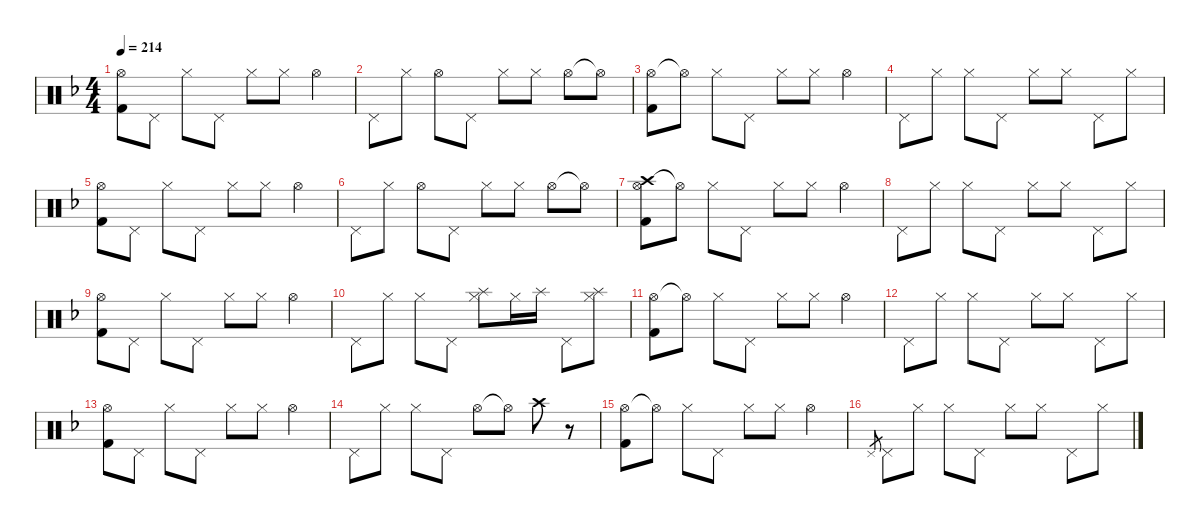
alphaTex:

\hideDynamics
\bracketExtendMode nobrackets
\singleTrackTrackNamePolicy hidden
\multiTrackTrackNamePolicy hidden
\firstSystemTrackNameMode fullname
\firstSystemTrackNameOrientation horizontal
\otherSystemsTrackNameOrientation horizontal
\track ("Drumkit" "Drums") {defaultSystemsLayout 4 instrument percussion}
\staff {score}
\articulation defaults
\ts (4 4)
\tempo 214
\clef neutral
\ks dminor
("Hi-Hat (open)"{acc forcenatural} "Kick (hit) 2"{acc forcenatural}).8{dy mf beam Down} "Pedal Hi-Hat (hit)"{acc forcenatural}.8{beam Down} "Hi-Hat (closed)"{acc forcenatural}.8{dy mp beam Down} "Pedal Hi-Hat (hit)"{acc forcenatural}.8{beam Down} "Hi-Hat (closed)"{acc forcenatural}.8{beam Down} "Hi-Hat (closed)"{acc forcenatural}.8{beam Down} "Hi-Hat (open)"{acc forcenatural}.4{dy mf beam Down} |
"Pedal Hi-Hat (hit)"{acc forcenatural}.8{beam Down} "Hi-Hat (closed)"{acc forcenatural}.8{dy mp beam Down} "Hi-Hat (open)"{acc forcenatural}.8{dy mf beam Down} "Pedal Hi-Hat (hit)"{acc forcenatural}.8{dy f beam Down} "Hi-Hat (closed)"{acc forcenatural}.8{dy mp beam Down} "Hi-Hat (closed)"{acc forcenatural}.8{beam Down} "Hi-Hat (open)"{acc forcenatural}.8{dy mf beam Down} "Hi-Hat (open)"{t acc forcenatural}.8{dy f beam Down} |
("Hi-Hat (open)"{acc forcenatural} "Kick (hit) 2"{acc forcenatural}).8{dy mf beam Down} "Hi-Hat (open)"{t acc forcenatural}.8{dy f beam Down} "Hi-Hat (closed)"{acc forcenatural}.8{dy mp beam Down} "Pedal Hi-Hat (hit)"{acc forcenatural}.8{beam Down} "Hi-Hat (closed)"{acc forcenatural}.8{beam Down} "Hi-Hat (closed)"{acc forcenatural}.8{beam Down} "Hi-Hat (open)"{acc forcenatural}.4{dy mf beam Down} |
"Pedal Hi-Hat (hit)"{acc forcenatural}.8{beam Down} "Hi-Hat (closed)"{acc forcenatural}.8{dy mp beam Down} "Hi-Hat (closed)"{acc forcenatural}.8{beam Down} "Pedal Hi-Hat (hit)"{acc forcenatural}.8{dy mf beam Down} "Hi-Hat (closed)"{acc forcenatural}.8{dy mp beam Down} "Hi-Hat (closed)"{acc forcenatural}.8{beam Down} "Pedal Hi-Hat (hit)"{acc forcenatural}.8{dy mf beam Down} "Hi-Hat (closed)"{acc forcenatural}.8{dy mp beam Down} |
("Hi-Hat (open)"{acc forcenatural} "Kick (hit) 2"{acc forcenatural}).8{dy mf beam Down} "Pedal Hi-Hat (hit)"{acc forcenatural}.8{beam Down} "Hi-Hat (closed)"{acc forcenatural}.8{dy mp beam Down} "Pedal Hi-Hat (hit)"{acc forcenatural}.8{beam Down} "Hi-Hat (closed)"{acc forcenatural}.8{beam Down} "Hi-Hat (closed)"{acc forcenatural}.8{beam Down} "Hi-Hat (open)"{acc forcenatural}.4{dy mf beam Down} |
"Pedal Hi-Hat (hit)"{acc forcenatural}.8{beam Down} "Hi-Hat (closed)"{acc forcenatural}.8{dy mp beam Down} "Hi-Hat (open)"{acc forcenatural}.8{dy mf beam Down} "Pedal Hi-Hat (hit)"{acc forcenatural}.8{dy f beam Down} "Hi-Hat (closed)"{acc forcenatural}.8{dy mp beam Down} "Hi-Hat (closed)"{acc forcenatural}.8{beam Down} "Hi-Hat (open)"{acc forcenatural}.8{dy mf beam Down} "Hi-Hat (open)"{t acc forcenatural}.8{dy f beam Down} |
("Crash high (hit)"{acc forcenatural} "Hi-Hat (open)"{acc forcenatural} "Kick (hit) 2"{acc forcenatural}).8{dy mp beam Down} "Hi-Hat (open)"{t acc forcenatural}.8{dy f beam Down} "Hi-Hat (closed)"{acc forcenatural}.8{dy mp beam Down} "Pedal Hi-Hat (hit)"{acc forcenatural}.8{beam Down} "Hi-Hat (closed)"{acc forcenatural}.8{beam Down} "Hi-Hat (closed)"{acc forcenatural}.8{beam Down} "Hi-Hat (open)"{acc forcenatural}.4{dy mf beam Down} |
"Pedal Hi-Hat (hit)"{acc forcenatural}.8{beam Down} "Hi-Hat (closed)"{acc forcenatural}.8{dy mp beam Down} "Hi-Hat (closed)"{acc forcenatural}.8{beam Down} "Pedal Hi-Hat (hit)"{acc forcenatural}.8{dy mf beam Down} "Hi-Hat (closed)"{acc forcenatural}.8{dy mp beam Down} "Hi-Hat (closed)"{acc forcenatural}.8{beam Down} "Pedal Hi-Hat (hit)"{acc forcenatural}.8{dy mf beam Down} "Hi-Hat (closed)"{acc forcenatural}.8{dy mp beam Down} |
("Hi-Hat (open)"{acc forcenatural} "Kick (hit) 2"{acc forcenatural}).8{dy mf beam Down} "Pedal Hi-Hat (hit)"{acc forcenatural}.8{beam Down} "Hi-Hat (closed)"{acc forcenatural}.8{dy mp beam Down} "Pedal Hi-Hat (hit)"{acc forcenatural}.8{beam Down} "Hi-Hat (closed)"{acc forcenatural}.8{beam Down} "Hi-Hat (closed)"{acc forcenatural}.8{beam Down} "Hi-Hat (open)"{acc forcenatural}.4{dy mf beam Down} |
"Pedal Hi-Hat (hit)"{acc forcenatural}.8{beam Down} "Hi-Hat (closed)"{acc forcenatural}.8{dy mp beam Down} "Hi-Hat (closed)"{acc forcenatural}.8{beam Down} "Pedal Hi-Hat (hit)"{acc forcenatural}.8{dy mf beam Down} ("Splash (hit)"{acc forcenatural} "Hi-Hat (closed)"{acc forcenatural}).8{dy mp beam Down} "Hi-Hat (closed)"{acc forcenatural}.16{beam Down} "Splash (hit)"{acc forcenatural}.16{beam Down} "Pedal Hi-Hat (hit)"{acc forcenatural}.8{dy mf beam Down} ("Splash (hit)"{acc forcenatural} "Hi-Hat (closed)"{acc forcenatural}).8{dy mp beam Down} |
("Hi-Hat (open)"{acc forcenatural} "Kick (hit) 2"{acc forcenatural}).8{dy mf beam Down} "Hi-Hat (open)"{t acc forcenatural}.8{dy f beam Down} "Hi-Hat (closed)"{acc forcenatural}.8{dy mp beam Down} "Pedal Hi-Hat (hit)"{acc forcenatural}.8{beam Down} "Hi-Hat (closed)"{acc forcenatural}.8{beam Down} "Hi-Hat (closed)"{acc forcenatural}.8{beam Down} "Hi-Hat (open)"{acc forcenatural}.4{dy mf beam Down} |
"Pedal Hi-Hat (hit)"{acc forcenatural}.8{beam Down} "Hi-Hat (closed)"{acc forcenatural}.8{dy mp beam Down} "Hi-Hat (closed)"{acc forcenatural}.8{beam Down} "Pedal Hi-Hat (hit)"{acc forcenatural}.8{dy mf beam Down} "Hi-Hat (closed)"{acc forcenatural}.8{dy mp beam Down} "Hi-Hat (closed)"{acc forcenatural}.8{beam Down} "Pedal Hi-Hat (hit)"{acc forcenatural}.8{dy mf beam Down} "Hi-Hat (closed)"{acc forcenatural}.8{dy mp beam Down} |
("Hi-Hat (open)"{acc forcenatural} "Kick (hit) 2"{acc forcenatural}).8{dy mf beam Down} "Pedal Hi-Hat (hit)"{acc forcenatural}.8{beam Down} "Hi-Hat (closed)"{acc forcenatural}.8{dy mp beam Down} "Pedal Hi-Hat (hit)"{acc forcenatural}.8{beam Down} "Hi-Hat (closed)"{acc forcenatural}.8{beam Down} "Hi-Hat (closed)"{acc forcenatural}.8{beam Down} "Hi-Hat (open)"{acc forcenatural}.4{dy mf beam Down} |
"Pedal Hi-Hat (hit)"{acc forcenatural}.8{beam Down} "Hi-Hat (closed)"{acc forcenatural}.8{dy mp beam Down} "Hi-Hat (closed)"{acc forcenatural}.8{beam Down} "Pedal Hi-Hat (hit)"{acc forcenatural}.8{dy mf beam Down} "Hi-Hat (open)"{acc forcenatural}.8{beam Down} "Hi-Hat (open)"{t acc forcenatural}.8{dy f beam Down} "Crash high (hit)"{acc forcenatural}.8{dy mf beam Down} r.8{beam Down} |
("Hi-Hat (open)"{acc forcenatural} "Kick (hit) 2"{acc forcenatural}).8{beam Down} "Hi-Hat (open)"{t acc forcenatural}.8{dy f beam Down} "Hi-Hat (closed)"{acc forcenatural}.8{dy mp beam Down} "Pedal Hi-Hat (hit)"{acc forcenatural}.8{beam Down} "Hi-Hat (closed)"{acc forcenatural}.8{beam Down} "Hi-Hat (closed)"{acc forcenatural}.8{beam Down} "Hi-Hat (open)"{acc forcenatural}.4{dy mf beam Down} |
"Pedal Hi-Hat (hit)"{acc forcenatural}.8{gr dy p beam Up} "Pedal Hi-Hat (hit)"{acc forcenatural}.8{dy mf beam Down} "Hi-Hat (closed)"{acc forcenatural}.8{dy mp beam Down} "Hi-Hat (closed)"{acc forcenatural}.8{beam Down} "Pedal Hi-Hat (hit)"{acc forcenatural}.8{dy mf beam Down} "Hi-Hat (closed)"{acc forcenatural}.8{dy mp beam Down} "Hi-Hat (closed)"{acc forcenatural}.8{beam Down} "Pedal Hi-Hat (hit)"{acc forcenatural}.8{dy mf beam Down} "Hi-Hat (closed)"{acc forcenatural}.8{dy mp beam Down}
